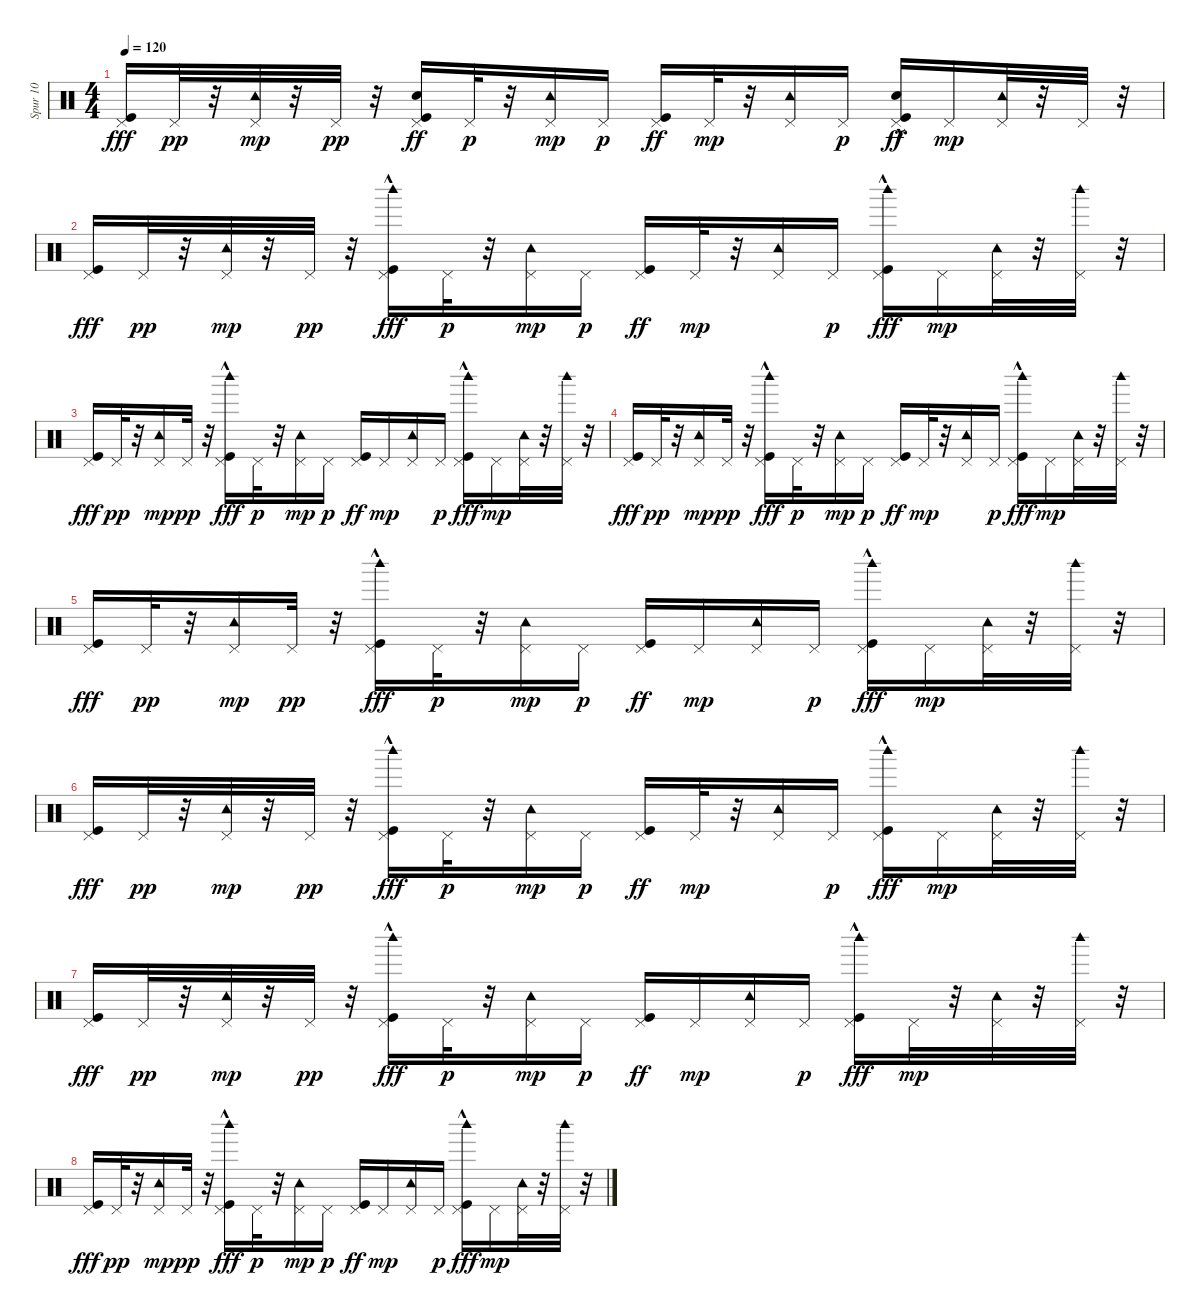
\track ("Spur 10" "Spur 10") {instrument percussion}
\staff {score}
\articulation defaults
\ts (4 4)
\tempo 120
\clef neutral
\ks c
("Pedal Hi-Hat (hit)" "Kick (hit)").16{dy fff} "Pedal Hi-Hat (hit)".32{dy pp} r.32 ("Pedal Hi-Hat (hit)" "Tambourine (hit)").32{dy mp} r.32 "Pedal Hi-Hat (hit)".32{dy pp} r.32 ("Kick (hit)" "Pedal Hi-Hat (hit)" "Snare (hit) 2").16{dy ff} "Pedal Hi-Hat (hit)".32{dy p} r.32 ("Pedal Hi-Hat (hit)" "Tambourine (hit)").16{dy mp} "Pedal Hi-Hat (hit)".16{dy p} ("Kick (hit)" "Pedal Hi-Hat (hit)").16{dy ff} "Pedal Hi-Hat (hit)".32{dy mp} r.32 ("Pedal Hi-Hat (hit)" "Tambourine (hit)").16 "Pedal Hi-Hat (hit)".16{dy p} ("Kick (hit)"{hac} "Pedal Hi-Hat (hit)" "Snare (hit) 2"{hac}).16{dy ff} "Pedal Hi-Hat (hit)".16{dy mp} ("Pedal Hi-Hat (hit)" "Tambourine (hit)").32 r.32 "Pedal Hi-Hat (hit)".32 r.32 |
("Pedal Hi-Hat (hit)" "Kick (hit)").16{dy fff} "Pedal Hi-Hat (hit)".32{dy pp} r.32 ("Pedal Hi-Hat (hit)" "Tambourine (hit)").32{dy mp} r.32 "Pedal Hi-Hat (hit)".32{dy pp} r.32 ("Kick (hit)" "Pedal Hi-Hat (hit)" "Woodblock high (hit)"{hac}).16{dy fff} "Pedal Hi-Hat (hit)".32{dy p} r.32 ("Pedal Hi-Hat (hit)" "Tambourine (hit)").16{dy mp} "Pedal Hi-Hat (hit)".16{dy p} ("Kick (hit)" "Pedal Hi-Hat (hit)").16{dy ff} "Pedal Hi-Hat (hit)".32{dy mp} r.32 ("Pedal Hi-Hat (hit)" "Tambourine (hit)").16 "Pedal Hi-Hat (hit)".16{dy p} ("Kick (hit)"{hac} "Pedal Hi-Hat (hit)" "Woodblock high (hit)").16{dy fff} "Pedal Hi-Hat (hit)".16{dy mp} ("Pedal Hi-Hat (hit)" "Tambourine (hit)").32 r.32 ("Pedal Hi-Hat (hit)" "Woodblock high (hit)").32 r.32 |
("Pedal Hi-Hat (hit)" "Kick (hit)").16{dy fff} "Pedal Hi-Hat (hit)".32{dy pp} r.32 ("Pedal Hi-Hat (hit)" "Tambourine (hit)").16{dy mp} "Pedal Hi-Hat (hit)".32{dy pp} r.32 ("Kick (hit)" "Pedal Hi-Hat (hit)" "Woodblock high (hit)"{hac}).16{dy fff} "Pedal Hi-Hat (hit)".32{dy p} r.32 ("Pedal Hi-Hat (hit)" "Tambourine (hit)").16{dy mp} "Pedal Hi-Hat (hit)".16{dy p} ("Kick (hit)" "Pedal Hi-Hat (hit)").16{dy ff} "Pedal Hi-Hat (hit)".16{dy mp} ("Pedal Hi-Hat (hit)" "Tambourine (hit)").16 "Pedal Hi-Hat (hit)".16{dy p} ("Kick (hit)"{hac} "Pedal Hi-Hat (hit)" "Woodblock high (hit)").16{dy fff} "Pedal Hi-Hat (hit)".16{dy mp} ("Pedal Hi-Hat (hit)" "Tambourine (hit)").32 r.32 ("Pedal Hi-Hat (hit)" "Woodblock high (hit)").32 r.32 |
("Pedal Hi-Hat (hit)" "Kick (hit)").16{dy fff} "Pedal Hi-Hat (hit)".32{dy pp} r.32 ("Pedal Hi-Hat (hit)" "Tambourine (hit)").16{dy mp} "Pedal Hi-Hat (hit)".32{dy pp} r.32 ("Kick (hit)" "Pedal Hi-Hat (hit)" "Woodblock high (hit)"{hac}).16{dy fff} "Pedal Hi-Hat (hit)".32{dy p} r.32 ("Pedal Hi-Hat (hit)" "Tambourine (hit)").16{dy mp} "Pedal Hi-Hat (hit)".16{dy p} ("Kick (hit)" "Pedal Hi-Hat (hit)").16{dy ff} "Pedal Hi-Hat (hit)".32{dy mp} r.32 ("Pedal Hi-Hat (hit)" "Tambourine (hit)").16 "Pedal Hi-Hat (hit)".16{dy p} ("Kick (hit)"{hac} "Pedal Hi-Hat (hit)" "Woodblock high (hit)").16{dy fff} "Pedal Hi-Hat (hit)".16{dy mp} ("Pedal Hi-Hat (hit)" "Tambourine (hit)").32 r.32 ("Pedal Hi-Hat (hit)" "Woodblock high (hit)").32 r.32 |
("Pedal Hi-Hat (hit)" "Kick (hit)").16{dy fff} "Pedal Hi-Hat (hit)".32{dy pp} r.32 ("Pedal Hi-Hat (hit)" "Tambourine (hit)").16{dy mp} "Pedal Hi-Hat (hit)".32{dy pp} r.32 ("Kick (hit)" "Pedal Hi-Hat (hit)" "Woodblock high (hit)"{hac}).16{dy fff} "Pedal Hi-Hat (hit)".32{dy p} r.32 ("Pedal Hi-Hat (hit)" "Tambourine (hit)").16{dy mp} "Pedal Hi-Hat (hit)".16{dy p} ("Kick (hit)" "Pedal Hi-Hat (hit)").16{dy ff} "Pedal Hi-Hat (hit)".16{dy mp} ("Pedal Hi-Hat (hit)" "Tambourine (hit)").16 "Pedal Hi-Hat (hit)".16{dy p} ("Kick (hit)"{hac} "Pedal Hi-Hat (hit)" "Woodblock high (hit)").16{dy fff} "Pedal Hi-Hat (hit)".16{dy mp} ("Pedal Hi-Hat (hit)" "Tambourine (hit)").32 r.32 ("Pedal Hi-Hat (hit)" "Woodblock high (hit)").32 r.32 |
("Pedal Hi-Hat (hit)" "Kick (hit)").16{dy fff} "Pedal Hi-Hat (hit)".32{dy pp} r.32 ("Pedal Hi-Hat (hit)" "Tambourine (hit)").32{dy mp} r.32 "Pedal Hi-Hat (hit)".32{dy pp} r.32 ("Kick (hit)" "Pedal Hi-Hat (hit)" "Woodblock high (hit)"{hac}).16{dy fff} "Pedal Hi-Hat (hit)".32{dy p} r.32 ("Pedal Hi-Hat (hit)" "Tambourine (hit)").16{dy mp} "Pedal Hi-Hat (hit)".16{dy p} ("Kick (hit)" "Pedal Hi-Hat (hit)").16{dy ff} "Pedal Hi-Hat (hit)".32{dy mp} r.32 ("Pedal Hi-Hat (hit)" "Tambourine (hit)").16 "Pedal Hi-Hat (hit)".16{dy p} ("Kick (hit)"{hac} "Pedal Hi-Hat (hit)" "Woodblock high (hit)").16{dy fff} "Pedal Hi-Hat (hit)".16{dy mp} ("Pedal Hi-Hat (hit)" "Tambourine (hit)").32 r.32 ("Pedal Hi-Hat (hit)" "Woodblock high (hit)").32 r.32 |
("Pedal Hi-Hat (hit)" "Kick (hit)").16{dy fff} "Pedal Hi-Hat (hit)".32{dy pp} r.32 ("Pedal Hi-Hat (hit)" "Tambourine (hit)").32{dy mp} r.32 "Pedal Hi-Hat (hit)".32{dy pp} r.32 ("Kick (hit)" "Pedal Hi-Hat (hit)" "Woodblock high (hit)"{hac}).16{dy fff} "Pedal Hi-Hat (hit)".32{dy p} r.32 ("Pedal Hi-Hat (hit)" "Tambourine (hit)").16{dy mp} "Pedal Hi-Hat (hit)".16{dy p} ("Kick (hit)" "Pedal Hi-Hat (hit)").16{dy ff} "Pedal Hi-Hat (hit)".16{dy mp} ("Pedal Hi-Hat (hit)" "Tambourine (hit)").16 "Pedal Hi-Hat (hit)".16{dy p} ("Kick (hit)"{hac} "Pedal Hi-Hat (hit)" "Woodblock high (hit)").16{dy fff} "Pedal Hi-Hat (hit)".32{dy mp} r.32 ("Pedal Hi-Hat (hit)" "Tambourine (hit)").32 r.32 ("Pedal Hi-Hat (hit)" "Woodblock high (hit)").32 r.32 |
("Pedal Hi-Hat (hit)" "Kick (hit)").16{dy fff} "Pedal Hi-Hat (hit)".32{dy pp} r.32 ("Pedal Hi-Hat (hit)" "Tambourine (hit)").16{dy mp} "Pedal Hi-Hat (hit)".32{dy pp} r.32 ("Kick (hit)" "Pedal Hi-Hat (hit)" "Woodblock high (hit)"{hac}).16{dy fff} "Pedal Hi-Hat (hit)".32{dy p} r.32 ("Pedal Hi-Hat (hit)" "Tambourine (hit)").16{dy mp} "Pedal Hi-Hat (hit)".16{dy p} ("Kick (hit)" "Pedal Hi-Hat (hit)").16{dy ff} "Pedal Hi-Hat (hit)".16{dy mp} ("Pedal Hi-Hat (hit)" "Tambourine (hit)").16 "Pedal Hi-Hat (hit)".16{dy p} ("Kick (hit)"{hac} "Pedal Hi-Hat (hit)" "Woodblock high (hit)").16{dy fff} "Pedal Hi-Hat (hit)".16{dy mp} ("Pedal Hi-Hat (hit)" "Tambourine (hit)").32 r.32 ("Pedal Hi-Hat (hit)" "Woodblock high (hit)").32 r.32
